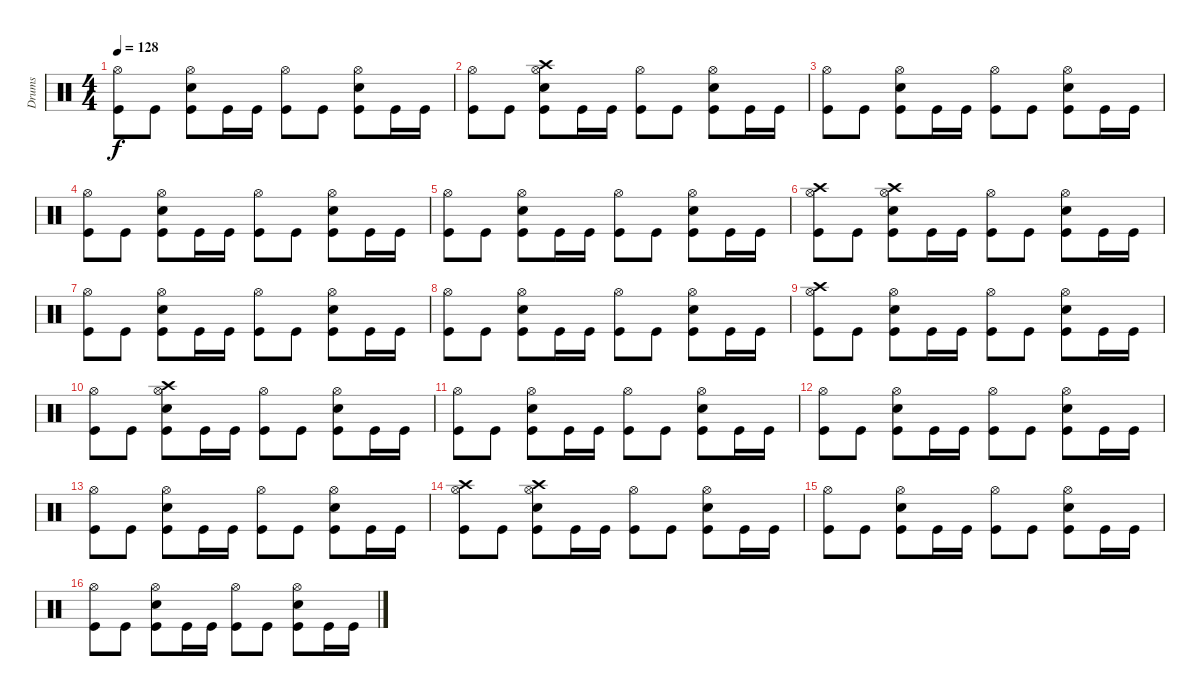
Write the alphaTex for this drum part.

\track ("Drums" "Drums") {instrument percussion}
\staff {score}
\articulation defaults
\ts (4 4)
\tempo 128
\clef neutral
\ks c
("Hi-Hat (open)" "Kick (hit)").8{dy f} "Kick (hit)".8 ("Hi-Hat (open)" "Snare (hit) 2" "Kick (hit)").8 "Kick (hit)".16 "Kick (hit)".16 ("Hi-Hat (open)" "Kick (hit)").8 "Kick (hit)".8 ("Hi-Hat (open)" "Snare (hit) 2" "Kick (hit)").8 "Kick (hit)".16 "Kick (hit)".16 |
\section ("" "")
("Hi-Hat (open)" "Kick (hit)").8 "Kick (hit)".8 ("Crash high (hit)" "Hi-Hat (open)" "Snare (hit) 2" "Kick (hit)").8 "Kick (hit)".16 "Kick (hit)".16 ("Hi-Hat (open)" "Kick (hit)").8 "Kick (hit)".8 ("Hi-Hat (open)" "Snare (hit) 2" "Kick (hit)").8 "Kick (hit)".16 "Kick (hit)".16 |
("Hi-Hat (open)" "Kick (hit)").8 "Kick (hit)".8 ("Hi-Hat (open)" "Snare (hit) 2" "Kick (hit)").8 "Kick (hit)".16 "Kick (hit)".16 ("Hi-Hat (open)" "Kick (hit)").8 "Kick (hit)".8 ("Hi-Hat (open)" "Snare (hit) 2" "Kick (hit)").8 "Kick (hit)".16 "Kick (hit)".16 |
("Hi-Hat (open)" "Kick (hit)").8 "Kick (hit)".8 ("Hi-Hat (open)" "Snare (hit) 2" "Kick (hit)").8 "Kick (hit)".16 "Kick (hit)".16 ("Hi-Hat (open)" "Kick (hit)").8 "Kick (hit)".8 ("Hi-Hat (open)" "Snare (hit) 2" "Kick (hit)").8 "Kick (hit)".16 "Kick (hit)".16 |
("Hi-Hat (open)" "Kick (hit)").8 "Kick (hit)".8 ("Hi-Hat (open)" "Snare (hit) 2" "Kick (hit)").8 "Kick (hit)".16 "Kick (hit)".16 ("Hi-Hat (open)" "Kick (hit)").8 "Kick (hit)".8 ("Hi-Hat (open)" "Snare (hit) 2" "Kick (hit)").8 "Kick (hit)".16 "Kick (hit)".16 |
("Crash high (hit)" "Hi-Hat (open)" "Kick (hit)").8 "Kick (hit)".8 ("Crash high (hit)" "Hi-Hat (open)" "Snare (hit) 2" "Kick (hit)").8 "Kick (hit)".16 "Kick (hit)".16 ("Hi-Hat (open)" "Kick (hit)").8 "Kick (hit)".8 ("Hi-Hat (open)" "Snare (hit) 2" "Kick (hit)").8 "Kick (hit)".16 "Kick (hit)".16 |
("Hi-Hat (open)" "Kick (hit)").8 "Kick (hit)".8 ("Hi-Hat (open)" "Snare (hit) 2" "Kick (hit)").8 "Kick (hit)".16 "Kick (hit)".16 ("Hi-Hat (open)" "Kick (hit)").8 "Kick (hit)".8 ("Hi-Hat (open)" "Snare (hit) 2" "Kick (hit)").8 "Kick (hit)".16 "Kick (hit)".16 |
("Hi-Hat (open)" "Kick (hit)").8 "Kick (hit)".8 ("Hi-Hat (open)" "Snare (hit) 2" "Kick (hit)").8 "Kick (hit)".16 "Kick (hit)".16 ("Hi-Hat (open)" "Kick (hit)").8 "Kick (hit)".8 ("Hi-Hat (open)" "Snare (hit) 2" "Kick (hit)").8 "Kick (hit)".16 "Kick (hit)".16 |
("Crash high (hit)" "Hi-Hat (open)" "Kick (hit)").8 "Kick (hit)".8 ("Hi-Hat (open)" "Snare (hit) 2" "Kick (hit)").8 "Kick (hit)".16 "Kick (hit)".16 ("Hi-Hat (open)" "Kick (hit)").8 "Kick (hit)".8 ("Hi-Hat (open)" "Snare (hit) 2" "Kick (hit)").8 "Kick (hit)".16 "Kick (hit)".16 |
("Hi-Hat (open)" "Kick (hit)").8 "Kick (hit)".8 ("Crash high (hit)" "Hi-Hat (open)" "Snare (hit) 2" "Kick (hit)").8 "Kick (hit)".16 "Kick (hit)".16 ("Hi-Hat (open)" "Kick (hit)").8 "Kick (hit)".8 ("Hi-Hat (open)" "Snare (hit) 2" "Kick (hit)").8 "Kick (hit)".16 "Kick (hit)".16 |
("Hi-Hat (open)" "Kick (hit)").8 "Kick (hit)".8 ("Hi-Hat (open)" "Snare (hit) 2" "Kick (hit)").8 "Kick (hit)".16 "Kick (hit)".16 ("Hi-Hat (open)" "Kick (hit)").8 "Kick (hit)".8 ("Hi-Hat (open)" "Snare (hit) 2" "Kick (hit)").8 "Kick (hit)".16 "Kick (hit)".16 |
("Hi-Hat (open)" "Kick (hit)").8 "Kick (hit)".8 ("Hi-Hat (open)" "Snare (hit) 2" "Kick (hit)").8 "Kick (hit)".16 "Kick (hit)".16 ("Hi-Hat (open)" "Kick (hit)").8 "Kick (hit)".8 ("Hi-Hat (open)" "Snare (hit) 2" "Kick (hit)").8 "Kick (hit)".16 "Kick (hit)".16 |
("Hi-Hat (open)" "Kick (hit)").8 "Kick (hit)".8 ("Hi-Hat (open)" "Snare (hit) 2" "Kick (hit)").8 "Kick (hit)".16 "Kick (hit)".16 ("Hi-Hat (open)" "Kick (hit)").8 "Kick (hit)".8 ("Hi-Hat (open)" "Snare (hit) 2" "Kick (hit)").8 "Kick (hit)".16 "Kick (hit)".16 |
("Crash high (hit)" "Hi-Hat (open)" "Kick (hit)").8 "Kick (hit)".8 ("Crash high (hit)" "Hi-Hat (open)" "Snare (hit) 2" "Kick (hit)").8 "Kick (hit)".16 "Kick (hit)".16 ("Hi-Hat (open)" "Kick (hit)").8 "Kick (hit)".8 ("Hi-Hat (open)" "Snare (hit) 2" "Kick (hit)").8 "Kick (hit)".16 "Kick (hit)".16 |
("Hi-Hat (open)" "Kick (hit)").8 "Kick (hit)".8 ("Hi-Hat (open)" "Snare (hit) 2" "Kick (hit)").8 "Kick (hit)".16 "Kick (hit)".16 ("Hi-Hat (open)" "Kick (hit)").8 "Kick (hit)".8 ("Hi-Hat (open)" "Snare (hit) 2" "Kick (hit)").8 "Kick (hit)".16 "Kick (hit)".16 |
("Hi-Hat (open)" "Kick (hit)").8 "Kick (hit)".8 ("Hi-Hat (open)" "Snare (hit) 2" "Kick (hit)").8 "Kick (hit)".16 "Kick (hit)".16 ("Hi-Hat (open)" "Kick (hit)").8 "Kick (hit)".8 ("Hi-Hat (open)" "Snare (hit) 2" "Kick (hit)").8 "Kick (hit)".16 "Kick (hit)".16
